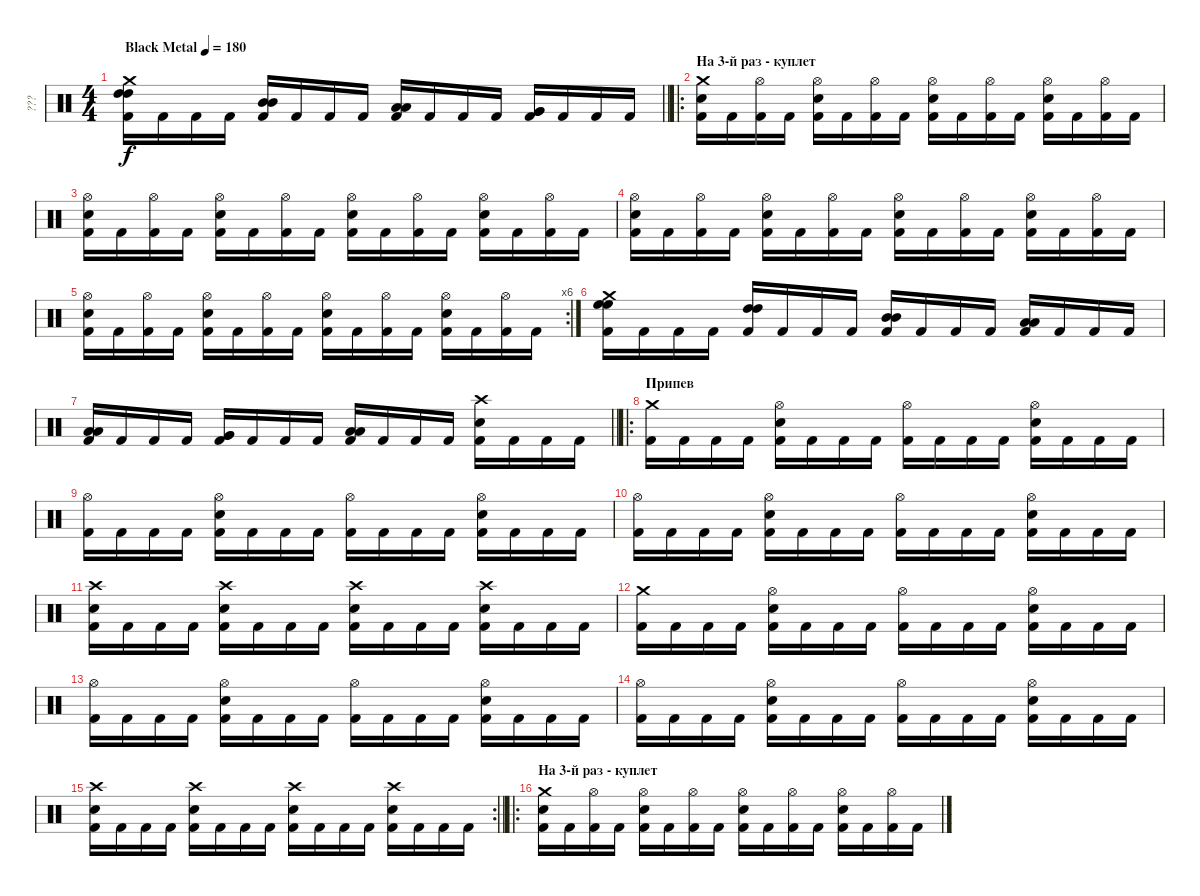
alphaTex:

\track ("???" "???") {instrument percussion}
\staff {score}
\articulation defaults
\ts (4 4)
\tempo (180 "Black Metal")
\clef neutral
\barLineRight lightlight
\ks c
("Crash medium (hit)" "Kick (hit) 2" "High Tom (hit)" "High Tom (hit)").16{dy f} "Kick (hit) 2".16 "Kick (hit) 2".16 "Kick (hit) 2".16 ("Kick (hit) 2" "Mid Tom (hit)" "Mid Tom (hit)").16 "Kick (hit) 2".16 "Kick (hit) 2".16 "Kick (hit) 2".16 ("Kick (hit) 2" "Low Tom (hit)" "Low Tom (hit)").16 "Kick (hit) 2".16 "Kick (hit) 2".16 "Kick (hit) 2".16 ("Kick (hit) 2" "Very Low Tom (hit)" "Very Low Tom (hit)").16 "Kick (hit) 2".16 "Kick (hit) 2".16 "Kick (hit) 2".16 |
\ro
\section ("" "На 3-й раз - куплет")
("Crash medium (hit)" "Kick (hit) 2" "Snare (hit) 2").16 "Kick (hit) 2".16 ("Hi-Hat (open)" "Kick (hit) 2").16 "Kick (hit) 2".16 ("Hi-Hat (open)" "Kick (hit) 2" "Snare (hit) 2").16 "Kick (hit) 2".16 ("Hi-Hat (open)" "Kick (hit) 2").16 "Kick (hit) 2".16 ("Hi-Hat (open)" "Kick (hit) 2" "Snare (hit) 2").16 "Kick (hit) 2".16 ("Hi-Hat (open)" "Kick (hit) 2").16 "Kick (hit) 2".16 ("Hi-Hat (open)" "Kick (hit) 2" "Snare (hit) 2").16 "Kick (hit) 2".16 ("Hi-Hat (open)" "Kick (hit) 2").16 "Kick (hit) 2".16 |
("Hi-Hat (open)" "Kick (hit) 2" "Snare (hit) 2").16 "Kick (hit) 2".16 ("Hi-Hat (open)" "Kick (hit) 2").16 "Kick (hit) 2".16 ("Hi-Hat (open)" "Kick (hit) 2" "Snare (hit) 2").16 "Kick (hit) 2".16 ("Hi-Hat (open)" "Kick (hit) 2").16 "Kick (hit) 2".16 ("Hi-Hat (open)" "Kick (hit) 2" "Snare (hit) 2").16 "Kick (hit) 2".16 ("Hi-Hat (open)" "Kick (hit) 2").16 "Kick (hit) 2".16 ("Hi-Hat (open)" "Kick (hit) 2" "Snare (hit) 2").16 "Kick (hit) 2".16 ("Hi-Hat (open)" "Kick (hit) 2").16 "Kick (hit) 2".16 |
("Hi-Hat (open)" "Kick (hit) 2" "Snare (hit) 2").16 "Kick (hit) 2".16 ("Hi-Hat (open)" "Kick (hit) 2").16 "Kick (hit) 2".16 ("Hi-Hat (open)" "Kick (hit) 2" "Snare (hit) 2").16 "Kick (hit) 2".16 ("Hi-Hat (open)" "Kick (hit) 2").16 "Kick (hit) 2".16 ("Hi-Hat (open)" "Kick (hit) 2" "Snare (hit) 2").16 "Kick (hit) 2".16 ("Hi-Hat (open)" "Kick (hit) 2").16 "Kick (hit) 2".16 ("Hi-Hat (open)" "Kick (hit) 2" "Snare (hit) 2").16 "Kick (hit) 2".16 ("Hi-Hat (open)" "Kick (hit) 2").16 "Kick (hit) 2".16 |
\rc 6
("Hi-Hat (open)" "Kick (hit) 2" "Snare (hit) 2").16 "Kick (hit) 2".16 ("Hi-Hat (open)" "Kick (hit) 2").16 "Kick (hit) 2".16 ("Hi-Hat (open)" "Kick (hit) 2" "Snare (hit) 2").16 "Kick (hit) 2".16 ("Hi-Hat (open)" "Kick (hit) 2").16 "Kick (hit) 2".16 ("Hi-Hat (open)" "Kick (hit) 2" "Snare (hit) 2").16 "Kick (hit) 2".16 ("Hi-Hat (open)" "Kick (hit) 2").16 "Kick (hit) 2".16 ("Hi-Hat (open)" "Kick (hit) 2" "Snare (hit) 2").16 "Kick (hit) 2".16 ("Hi-Hat (open)" "Kick (hit) 2").16 "Kick (hit) 2".16 |
("Crash medium (hit)" "Kick (hit) 2" "High Floor Tom (hit)" "High Floor Tom (hit)").16 "Kick (hit) 2".16 "Kick (hit) 2".16 "Kick (hit) 2".16 ("Kick (hit) 2" "High Tom (hit)" "High Tom (hit)").16 "Kick (hit) 2".16 "Kick (hit) 2".16 "Kick (hit) 2".16 ("Kick (hit) 2" "Mid Tom (hit)" "Mid Tom (hit)").16 "Kick (hit) 2".16 "Kick (hit) 2".16 "Kick (hit) 2".16 ("Kick (hit) 2" "Low Tom (hit)" "Low Tom (hit)").16 "Kick (hit) 2".16 "Kick (hit) 2".16 "Kick (hit) 2".16 |
\barLineRight lightlight
("Kick (hit) 2" "Low Tom (hit)" "Low Tom (hit)").16 "Kick (hit) 2".16 "Kick (hit) 2".16 "Kick (hit) 2".16 ("Kick (hit) 2" "Very Low Tom (hit)" "Very Low Tom (hit)").16 "Kick (hit) 2".16 "Kick (hit) 2".16 "Kick (hit) 2".16 ("Kick (hit) 2" "Low Floor Tom (hit)" "Low Floor Tom (hit)").16 "Kick (hit) 2".16 "Kick (hit) 2".16 "Kick (hit) 2".16 ("Crash high (hit)" "Kick (hit) 2" "Snare (hit) 2").16 "Kick (hit) 2".16 "Kick (hit) 2".16 "Kick (hit) 2".16 |
\ro
\section ("" "Припев")
("Crash medium (hit)" "Kick (hit) 2").16 "Kick (hit) 2".16 "Kick (hit) 2".16 "Kick (hit) 2".16 ("Hi-Hat (open)" "Kick (hit) 2" "Snare (hit) 2").16 "Kick (hit) 2".16 "Kick (hit) 2".16 "Kick (hit) 2".16 ("Hi-Hat (open)" "Kick (hit) 2").16 "Kick (hit) 2".16 "Kick (hit) 2".16 "Kick (hit) 2".16 ("Hi-Hat (open)" "Kick (hit) 2" "Snare (hit) 2").16 "Kick (hit) 2".16 "Kick (hit) 2".16 "Kick (hit) 2".16 |
("Hi-Hat (open)" "Kick (hit) 2").16 "Kick (hit) 2".16 "Kick (hit) 2".16 "Kick (hit) 2".16 ("Hi-Hat (open)" "Kick (hit) 2" "Snare (hit) 2").16 "Kick (hit) 2".16 "Kick (hit) 2".16 "Kick (hit) 2".16 ("Hi-Hat (open)" "Kick (hit) 2").16 "Kick (hit) 2".16 "Kick (hit) 2".16 "Kick (hit) 2".16 ("Hi-Hat (open)" "Kick (hit) 2" "Snare (hit) 2").16 "Kick (hit) 2".16 "Kick (hit) 2".16 "Kick (hit) 2".16 |
("Hi-Hat (open)" "Kick (hit) 2").16 "Kick (hit) 2".16 "Kick (hit) 2".16 "Kick (hit) 2".16 ("Hi-Hat (open)" "Kick (hit) 2" "Snare (hit) 2").16 "Kick (hit) 2".16 "Kick (hit) 2".16 "Kick (hit) 2".16 ("Hi-Hat (open)" "Kick (hit) 2").16 "Kick (hit) 2".16 "Kick (hit) 2".16 "Kick (hit) 2".16 ("Hi-Hat (open)" "Kick (hit) 2" "Snare (hit) 2").16 "Kick (hit) 2".16 "Kick (hit) 2".16 "Kick (hit) 2".16 |
("Crash high (hit)" "Kick (hit) 2" "Snare (hit) 2").16 "Kick (hit) 2".16 "Kick (hit) 2".16 "Kick (hit) 2".16 ("Crash high (hit)" "Kick (hit) 2" "Snare (hit) 2").16 "Kick (hit) 2".16 "Kick (hit) 2".16 "Kick (hit) 2".16 ("Crash high (hit)" "Kick (hit) 2" "Snare (hit) 2").16 "Kick (hit) 2".16 "Kick (hit) 2".16 "Kick (hit) 2".16 ("Crash high (hit)" "Kick (hit) 2" "Snare (hit) 2").16 "Kick (hit) 2".16 "Kick (hit) 2".16 "Kick (hit) 2".16 |
("Crash medium (hit)" "Kick (hit) 2").16 "Kick (hit) 2".16 "Kick (hit) 2".16 "Kick (hit) 2".16 ("Hi-Hat (open)" "Kick (hit) 2" "Snare (hit) 2").16 "Kick (hit) 2".16 "Kick (hit) 2".16 "Kick (hit) 2".16 ("Hi-Hat (open)" "Kick (hit) 2").16 "Kick (hit) 2".16 "Kick (hit) 2".16 "Kick (hit) 2".16 ("Hi-Hat (open)" "Kick (hit) 2" "Snare (hit) 2").16 "Kick (hit) 2".16 "Kick (hit) 2".16 "Kick (hit) 2".16 |
("Hi-Hat (open)" "Kick (hit) 2").16 "Kick (hit) 2".16 "Kick (hit) 2".16 "Kick (hit) 2".16 ("Hi-Hat (open)" "Kick (hit) 2" "Snare (hit) 2").16 "Kick (hit) 2".16 "Kick (hit) 2".16 "Kick (hit) 2".16 ("Hi-Hat (open)" "Kick (hit) 2").16 "Kick (hit) 2".16 "Kick (hit) 2".16 "Kick (hit) 2".16 ("Hi-Hat (open)" "Kick (hit) 2" "Snare (hit) 2").16 "Kick (hit) 2".16 "Kick (hit) 2".16 "Kick (hit) 2".16 |
("Hi-Hat (open)" "Kick (hit) 2").16 "Kick (hit) 2".16 "Kick (hit) 2".16 "Kick (hit) 2".16 ("Hi-Hat (open)" "Kick (hit) 2" "Snare (hit) 2").16 "Kick (hit) 2".16 "Kick (hit) 2".16 "Kick (hit) 2".16 ("Hi-Hat (open)" "Kick (hit) 2").16 "Kick (hit) 2".16 "Kick (hit) 2".16 "Kick (hit) 2".16 ("Hi-Hat (open)" "Kick (hit) 2" "Snare (hit) 2").16 "Kick (hit) 2".16 "Kick (hit) 2".16 "Kick (hit) 2".16 |
\rc 2
\barLineRight lightlight
("Crash high (hit)" "Kick (hit) 2" "Snare (hit) 2").16 "Kick (hit) 2".16 "Kick (hit) 2".16 "Kick (hit) 2".16 ("Crash high (hit)" "Kick (hit) 2" "Snare (hit) 2").16 "Kick (hit) 2".16 "Kick (hit) 2".16 "Kick (hit) 2".16 ("Crash high (hit)" "Kick (hit) 2" "Snare (hit) 2").16 "Kick (hit) 2".16 "Kick (hit) 2".16 "Kick (hit) 2".16 ("Crash high (hit)" "Kick (hit) 2" "Snare (hit) 2").16 "Kick (hit) 2".16 "Kick (hit) 2".16 "Kick (hit) 2".16 |
\ro
\section ("" "На 3-й раз - куплет")
("Crash medium (hit)" "Kick (hit) 2" "Snare (hit) 2").16 "Kick (hit) 2".16 ("Hi-Hat (open)" "Kick (hit) 2").16 "Kick (hit) 2".16 ("Hi-Hat (open)" "Kick (hit) 2" "Snare (hit) 2").16 "Kick (hit) 2".16 ("Hi-Hat (open)" "Kick (hit) 2").16 "Kick (hit) 2".16 ("Hi-Hat (open)" "Kick (hit) 2" "Snare (hit) 2").16 "Kick (hit) 2".16 ("Hi-Hat (open)" "Kick (hit) 2").16 "Kick (hit) 2".16 ("Hi-Hat (open)" "Kick (hit) 2" "Snare (hit) 2").16 "Kick (hit) 2".16 ("Hi-Hat (open)" "Kick (hit) 2").16 "Kick (hit) 2".16
